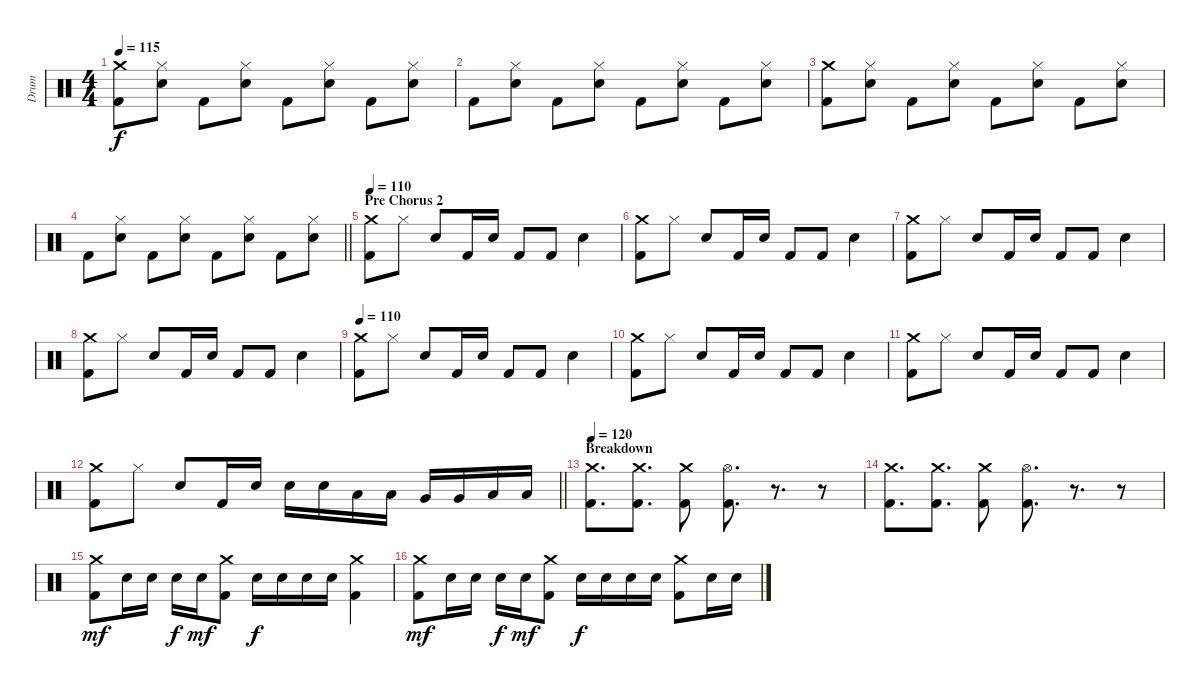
\track ("Drum" "Drum") {instrument percussion}
\staff {score}
\articulation defaults
\ts (4 4)
\tempo 115
\clef neutral
\ks c
("Crash medium (hit)" "Kick (hit) 2").8{dy f} ("Hi-Hat (closed)" "Snare (hit) 2").8 "Kick (hit) 2".8 ("Hi-Hat (closed)" "Snare (hit) 2").8 "Kick (hit) 2".8 ("Hi-Hat (closed)" "Snare (hit) 2").8 "Kick (hit) 2".8 ("Hi-Hat (closed)" "Snare (hit) 2").8 |
"Kick (hit) 2".8 ("Hi-Hat (closed)" "Snare (hit) 2").8 "Kick (hit) 2".8 ("Hi-Hat (closed)" "Snare (hit) 2").8 "Kick (hit) 2".8 ("Hi-Hat (closed)" "Snare (hit) 2").8 "Kick (hit) 2".8 ("Hi-Hat (closed)" "Snare (hit) 2").8 |
("Crash medium (hit)" "Kick (hit) 2").8 ("Hi-Hat (closed)" "Snare (hit) 2").8 "Kick (hit) 2".8 ("Hi-Hat (closed)" "Snare (hit) 2").8 "Kick (hit) 2".8 ("Hi-Hat (closed)" "Snare (hit) 2").8 "Kick (hit) 2".8 ("Hi-Hat (closed)" "Snare (hit) 2").8 |
\barLineRight lightlight "Kick (hit) 2".8
("Hi-Hat (closed)" "Snare (hit) 2").8 "Kick (hit) 2".8 ("Hi-Hat (closed)" "Snare (hit) 2").8 "Kick (hit) 2".8 ("Hi-Hat (closed)" "Snare (hit) 2").8 "Kick (hit) 2".8 ("Hi-Hat (closed)" "Snare (hit) 2").8 |
\section ("" "Pre Chorus 2")
\tempo 110
("Crash medium (hit)" "Kick (hit) 2").8 "Hi-Hat (closed)".8 "Snare (hit) 2".8 "Kick (hit) 2".16 "Snare (hit) 2".16 "Kick (hit) 2".8 "Kick (hit) 2".8 "Snare (hit) 2".4 |
("Crash medium (hit)" "Kick (hit) 2").8 "Hi-Hat (closed)".8 "Snare (hit) 2".8 "Kick (hit) 2".16 "Snare (hit) 2".16 "Kick (hit) 2".8 "Kick (hit) 2".8 "Snare (hit) 2".4 |
("Crash medium (hit)" "Kick (hit) 2").8 "Hi-Hat (closed)".8 "Snare (hit) 2".8 "Kick (hit) 2".16 "Snare (hit) 2".16 "Kick (hit) 2".8 "Kick (hit) 2".8 "Snare (hit) 2".4 |
("Crash medium (hit)" "Kick (hit) 2").8 "Hi-Hat (closed)".8 "Snare (hit) 2".8 "Kick (hit) 2".16 "Snare (hit) 2".16 "Kick (hit) 2".8 "Kick (hit) 2".8 "Snare (hit) 2".4 |
\tempo 110
("Crash medium (hit)" "Kick (hit) 2").8 "Hi-Hat (closed)".8 "Snare (hit) 2".8 "Kick (hit) 2".16 "Snare (hit) 2".16 "Kick (hit) 2".8 "Kick (hit) 2".8 "Snare (hit) 2".4 |
("Crash medium (hit)" "Kick (hit) 2").8 "Hi-Hat (closed)".8 "Snare (hit) 2".8 "Kick (hit) 2".16 "Snare (hit) 2".16 "Kick (hit) 2".8 "Kick (hit) 2".8 "Snare (hit) 2".4 |
("Crash medium (hit)" "Kick (hit) 2").8 "Hi-Hat (closed)".8 "Snare (hit) 2".8 "Kick (hit) 2".16 "Snare (hit) 2".16 "Kick (hit) 2".8 "Kick (hit) 2".8 "Snare (hit) 2".4 |
\barLineRight lightlight
("Crash medium (hit)" "Kick (hit) 2").8 "Hi-Hat (closed)".8 "Snare (hit) 2".8 "Kick (hit) 2".16 "Snare (hit) 2".16 "Snare (hit) 2".16 "Snare (hit) 2".16 "Low Tom (hit)".16 "Low Tom (hit)".16 "Very Low Tom (hit)".16 "Very Low Tom (hit)".16 "Low Floor Tom (hit)".16 "Low Floor Tom (hit)".16 |
\section ("" "Breakdown")
\tempo 120
("Crash medium (hit)" "Kick (hit) 2").8{d} ("Crash medium (hit)" "Kick (hit) 2").8{d} ("Crash medium (hit)" "Kick (hit) 2").8 ("Hi-Hat (open)" "Kick (hit) 2").8{d} r.8{d} r.8 |
("Crash medium (hit)" "Kick (hit) 2").8{d} ("Crash medium (hit)" "Kick (hit) 2").8{d} ("Crash medium (hit)" "Kick (hit) 2").8 ("Hi-Hat (open)" "Kick (hit) 2").8{d} r.8{d} r.8 |
("Crash medium (hit)" "Kick (hit) 2").8{dy mf} "Snare (hit) 2".16 "Snare (hit) 2".16 "Snare (hit) 2".16{dy f} "Snare (hit) 2".16{dy mf} ("Crash medium (hit)" "Kick (hit) 2").8 "Snare (hit) 2".16{dy f} "Snare (hit) 2".16 "Snare (hit) 2".16 "Snare (hit) 2".16 ("Crash medium (hit)" "Kick (hit) 2").4 |
("Crash medium (hit)" "Kick (hit) 2").8{dy mf} "Snare (hit) 2".16 "Snare (hit) 2".16 "Snare (hit) 2".16{dy f} "Snare (hit) 2".16{dy mf} ("Crash medium (hit)" "Kick (hit) 2").8 "Snare (hit) 2".16{dy f} "Snare (hit) 2".16 "Snare (hit) 2".16 "Snare (hit) 2".16 ("Crash medium (hit)" "Kick (hit) 2").8 "Snare (hit) 2".16 "Snare (hit) 2".16
